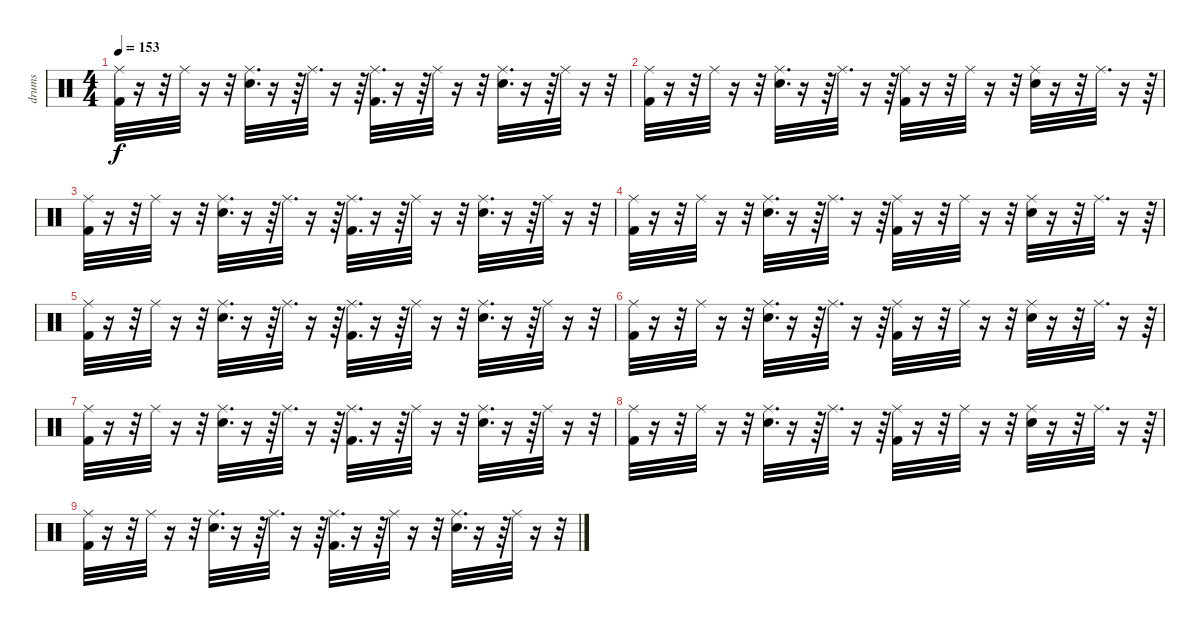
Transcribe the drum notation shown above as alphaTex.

\track ("drums" "drums") {instrument percussion}
\staff {score}
\articulation defaults
\ts (4 4)
\tempo 153
\clef neutral
\ks c
("Ride (middle)" "Kick (hit) 2").32{dy f} r.16 r.32 "Ride (middle)".32 r.16 r.32 ("Ride (middle)" "Snare (hit) 2").32{d} r.16 r.64 "Ride (middle)".32{d} r.16 r.64 ("Ride (middle)" "Kick (hit) 2").32{d} r.16 r.64 "Ride (middle)".32 r.16 r.32 ("Ride (middle)" "Snare (hit) 2").32{d} r.16 r.64 "Ride (middle)".32 r.16 r.32 |
("Ride (middle)" "Kick (hit) 2").32 r.16 r.32 "Ride (middle)".32 r.16 r.32 ("Ride (middle)" "Snare (hit) 2").32{d} r.16 r.64 "Ride (middle)".32{d} r.16 r.64 ("Ride (middle)" "Kick (hit) 2").32 r.16 r.32 "Ride (middle)".32 r.16 r.32 ("Ride (middle)" "Snare (hit) 2").32 r.16 r.32 "Ride (middle)".32{d} r.16 r.64 |
("Ride (middle)" "Kick (hit) 2").32 r.16 r.32 "Ride (middle)".32 r.16 r.32 ("Ride (middle)" "Snare (hit) 2").32{d} r.16 r.64 "Ride (middle)".32{d} r.16 r.64 ("Ride (middle)" "Kick (hit) 2").32{d} r.16 r.64 "Ride (middle)".32 r.16 r.32 ("Ride (middle)" "Snare (hit) 2").32{d} r.16 r.64 "Ride (middle)".32 r.16 r.32 |
("Ride (middle)" "Kick (hit) 2").32 r.16 r.32 "Ride (middle)".32 r.16 r.32 ("Ride (middle)" "Snare (hit) 2").32{d} r.16 r.64 "Ride (middle)".32{d} r.16 r.64 ("Ride (middle)" "Kick (hit) 2").32 r.16 r.32 "Ride (middle)".32 r.16 r.32 ("Ride (middle)" "Snare (hit) 2").32 r.16 r.32 "Ride (middle)".32{d} r.16 r.64 |
("Ride (middle)" "Kick (hit) 2").32 r.16 r.32 "Ride (middle)".32 r.16 r.32 ("Ride (middle)" "Snare (hit) 2").32{d} r.16 r.64 "Ride (middle)".32{d} r.16 r.64 ("Ride (middle)" "Kick (hit) 2").32{d} r.16 r.64 "Ride (middle)".32 r.16 r.32 ("Ride (middle)" "Snare (hit) 2").32{d} r.16 r.64 "Ride (middle)".32 r.16 r.32 |
("Ride (middle)" "Kick (hit) 2").32 r.16 r.32 "Ride (middle)".32 r.16 r.32 ("Ride (middle)" "Snare (hit) 2").32{d} r.16 r.64 "Ride (middle)".32{d} r.16 r.64 ("Ride (middle)" "Kick (hit) 2").32 r.16 r.32 "Ride (middle)".32 r.16 r.32 ("Ride (middle)" "Snare (hit) 2").32 r.16 r.32 "Ride (middle)".32{d} r.16 r.64 |
("Ride (middle)" "Kick (hit) 2").32 r.16 r.32 "Ride (middle)".32 r.16 r.32 ("Ride (middle)" "Snare (hit) 2").32{d} r.16 r.64 "Ride (middle)".32{d} r.16 r.64 ("Ride (middle)" "Kick (hit) 2").32{d} r.16 r.64 "Ride (middle)".32 r.16 r.32 ("Ride (middle)" "Snare (hit) 2").32{d} r.16 r.64 "Ride (middle)".32 r.16 r.32 |
("Ride (middle)" "Kick (hit) 2").32 r.16 r.32 "Ride (middle)".32 r.16 r.32 ("Ride (middle)" "Snare (hit) 2").32{d} r.16 r.64 "Ride (middle)".32{d} r.16 r.64 ("Ride (middle)" "Kick (hit) 2").32 r.16 r.32 "Ride (middle)".32 r.16 r.32 ("Ride (middle)" "Snare (hit) 2").32 r.16 r.32 "Ride (middle)".32{d} r.16 r.64 |
("Ride (middle)" "Kick (hit) 2").32 r.16 r.32 "Ride (middle)".32 r.16 r.32 ("Ride (middle)" "Snare (hit) 2").32{d} r.16 r.64 "Ride (middle)".32{d} r.16 r.64 ("Ride (middle)" "Kick (hit) 2").32{d} r.16 r.64 "Ride (middle)".32 r.16 r.32 ("Ride (middle)" "Snare (hit) 2").32{d} r.16 r.64 "Ride (middle)".32 r.16 r.32
